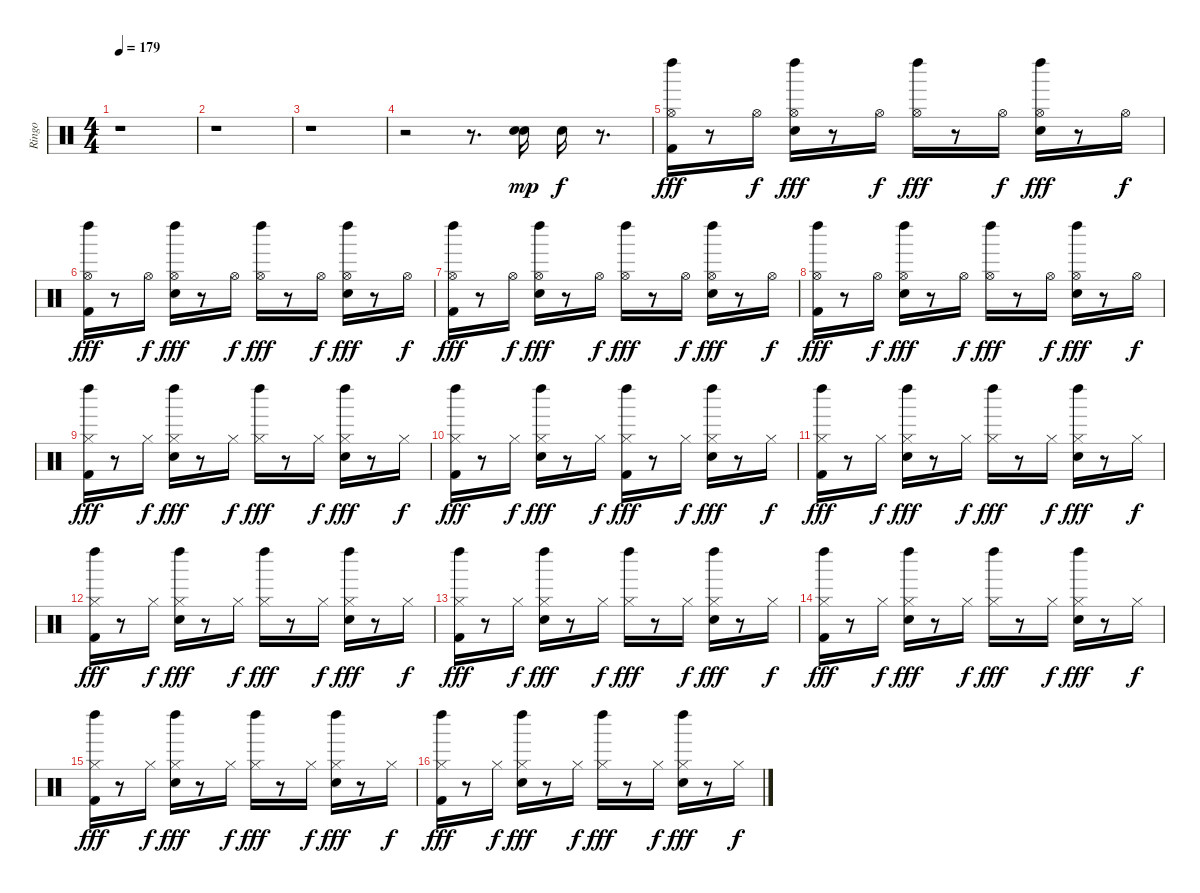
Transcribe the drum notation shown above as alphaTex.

\track ("Ringo" "Ringo") {instrument percussion}
\staff {score}
\articulation defaults
\ts (4 4)
\tempo 179
\clef neutral
\ks c
r.1{dy mp} |
r.1 |
r.1 |
r.2 r.8{d} ("Snare (hit) 2" "Snare (hit) 2").16 "Snare (hit) 2".16{dy f} r.8{d} |
("Kick (hit) 2" "Hi-Hat (open)" "Left Maraca (hit)").16{dy fff} r.8 "Hi-Hat (open)".16{dy f} ("Snare (hit) 2" "Hi-Hat (open)" "Left Maraca (hit)").16{dy fff} r.8 "Hi-Hat (open)".16{dy f} ("Hi-Hat (open)" "Left Maraca (hit)").16{dy fff} r.8 "Hi-Hat (open)".16{dy f} ("Snare (hit) 2" "Hi-Hat (open)" "Left Maraca (hit)").16{dy fff} r.8 "Hi-Hat (open)".16{dy f} |
("Kick (hit) 2" "Hi-Hat (open)" "Left Maraca (hit)").16{dy fff} r.8 "Hi-Hat (open)".16{dy f} ("Snare (hit) 2" "Hi-Hat (open)" "Left Maraca (hit)").16{dy fff} r.8 "Hi-Hat (open)".16{dy f} ("Hi-Hat (open)" "Left Maraca (hit)").16{dy fff} r.8 "Hi-Hat (open)".16{dy f} ("Snare (hit) 2" "Hi-Hat (open)" "Left Maraca (hit)").16{dy fff} r.8 "Hi-Hat (open)".16{dy f} |
("Kick (hit) 2" "Hi-Hat (open)" "Left Maraca (hit)").16{dy fff} r.8 "Hi-Hat (open)".16{dy f} ("Snare (hit) 2" "Hi-Hat (open)" "Left Maraca (hit)").16{dy fff} r.8 "Hi-Hat (open)".16{dy f} ("Hi-Hat (open)" "Left Maraca (hit)").16{dy fff} r.8 "Hi-Hat (open)".16{dy f} ("Snare (hit) 2" "Hi-Hat (open)" "Left Maraca (hit)").16{dy fff} r.8 "Hi-Hat (open)".16{dy f} |
("Kick (hit) 2" "Hi-Hat (open)" "Left Maraca (hit)").16{dy fff} r.8 "Hi-Hat (open)".16{dy f} ("Snare (hit) 2" "Hi-Hat (open)" "Left Maraca (hit)").16{dy fff} r.8 "Hi-Hat (open)".16{dy f} ("Hi-Hat (open)" "Left Maraca (hit)").16{dy fff} r.8 "Hi-Hat (open)".16{dy f} ("Snare (hit) 2" "Hi-Hat (open)" "Left Maraca (hit)").16{dy fff} r.8 "Hi-Hat (open)".16{dy f} |
("Hi-Hat (closed)" "Kick (hit) 2" "Left Maraca (hit)").16{dy fff} r.8 "Hi-Hat (closed)".16{dy f} ("Hi-Hat (closed)" "Snare (hit) 2" "Left Maraca (hit)").16{dy fff} r.8 "Hi-Hat (closed)".16{dy f} ("Hi-Hat (closed)" "Left Maraca (hit)").16{dy fff} r.8 "Hi-Hat (closed)".16{dy f} ("Hi-Hat (closed)" "Snare (hit) 2" "Left Maraca (hit)").16{dy fff} r.8 "Hi-Hat (closed)".16{dy f} |
("Hi-Hat (closed)" "Kick (hit) 2" "Left Maraca (hit)").16{dy fff} r.8 "Hi-Hat (closed)".16{dy f} ("Hi-Hat (closed)" "Snare (hit) 2" "Left Maraca (hit)").16{dy fff} r.8 "Hi-Hat (closed)".16{dy f} ("Hi-Hat (closed)" "Kick (hit) 2" "Left Maraca (hit)").16{dy fff} r.8 "Hi-Hat (closed)".16{dy f} ("Hi-Hat (closed)" "Snare (hit) 2" "Left Maraca (hit)").16{dy fff} r.8 "Hi-Hat (closed)".16{dy f} |
("Hi-Hat (closed)" "Kick (hit) 2" "Left Maraca (hit)").16{dy fff} r.8 "Hi-Hat (closed)".16{dy f} ("Hi-Hat (closed)" "Snare (hit) 2" "Left Maraca (hit)").16{dy fff} r.8 "Hi-Hat (closed)".16{dy f} ("Hi-Hat (closed)" "Left Maraca (hit)").16{dy fff} r.8 "Hi-Hat (closed)".16{dy f} ("Hi-Hat (closed)" "Snare (hit) 2" "Left Maraca (hit)").16{dy fff} r.8 "Hi-Hat (closed)".16{dy f} |
("Hi-Hat (closed)" "Kick (hit) 2" "Left Maraca (hit)").16{dy fff} r.8 "Hi-Hat (closed)".16{dy f} ("Hi-Hat (closed)" "Snare (hit) 2" "Left Maraca (hit)").16{dy fff} r.8 "Hi-Hat (closed)".16{dy f} ("Hi-Hat (closed)" "Left Maraca (hit)").16{dy fff} r.8 "Hi-Hat (closed)".16{dy f} ("Hi-Hat (closed)" "Snare (hit) 2" "Left Maraca (hit)").16{dy fff} r.8 "Hi-Hat (closed)".16{dy f} |
("Hi-Hat (closed)" "Kick (hit) 2" "Left Maraca (hit)").16{dy fff} r.8 "Hi-Hat (closed)".16{dy f} ("Hi-Hat (closed)" "Snare (hit) 2" "Left Maraca (hit)").16{dy fff} r.8 "Hi-Hat (closed)".16{dy f} ("Hi-Hat (closed)" "Left Maraca (hit)").16{dy fff} r.8 "Hi-Hat (closed)".16{dy f} ("Hi-Hat (closed)" "Snare (hit) 2" "Left Maraca (hit)").16{dy fff} r.8 "Hi-Hat (closed)".16{dy f} |
("Hi-Hat (closed)" "Kick (hit) 2" "Left Maraca (hit)").16{dy fff} r.8 "Hi-Hat (closed)".16{dy f} ("Hi-Hat (closed)" "Snare (hit) 2" "Left Maraca (hit)").16{dy fff} r.8 "Hi-Hat (closed)".16{dy f} ("Hi-Hat (closed)" "Left Maraca (hit)").16{dy fff} r.8 "Hi-Hat (closed)".16{dy f} ("Hi-Hat (closed)" "Snare (hit) 2" "Left Maraca (hit)").16{dy fff} r.8 "Hi-Hat (closed)".16{dy f} |
("Hi-Hat (closed)" "Kick (hit) 2" "Left Maraca (hit)").16{dy fff} r.8 "Hi-Hat (closed)".16{dy f} ("Hi-Hat (closed)" "Snare (hit) 2" "Left Maraca (hit)").16{dy fff} r.8 "Hi-Hat (closed)".16{dy f} ("Hi-Hat (closed)" "Left Maraca (hit)").16{dy fff} r.8 "Hi-Hat (closed)".16{dy f} ("Hi-Hat (closed)" "Snare (hit) 2" "Left Maraca (hit)").16{dy fff} r.8 "Hi-Hat (closed)".16{dy f} |
("Hi-Hat (closed)" "Kick (hit) 2" "Left Maraca (hit)").16{dy fff} r.8 "Hi-Hat (closed)".16{dy f} ("Hi-Hat (closed)" "Snare (hit) 2" "Left Maraca (hit)").16{dy fff} r.8 "Hi-Hat (closed)".16{dy f} ("Hi-Hat (closed)" "Left Maraca (hit)").16{dy fff} r.8 "Hi-Hat (closed)".16{dy f} ("Hi-Hat (closed)" "Snare (hit) 2" "Left Maraca (hit)").16{dy fff} r.8 "Hi-Hat (closed)".16{dy f}
